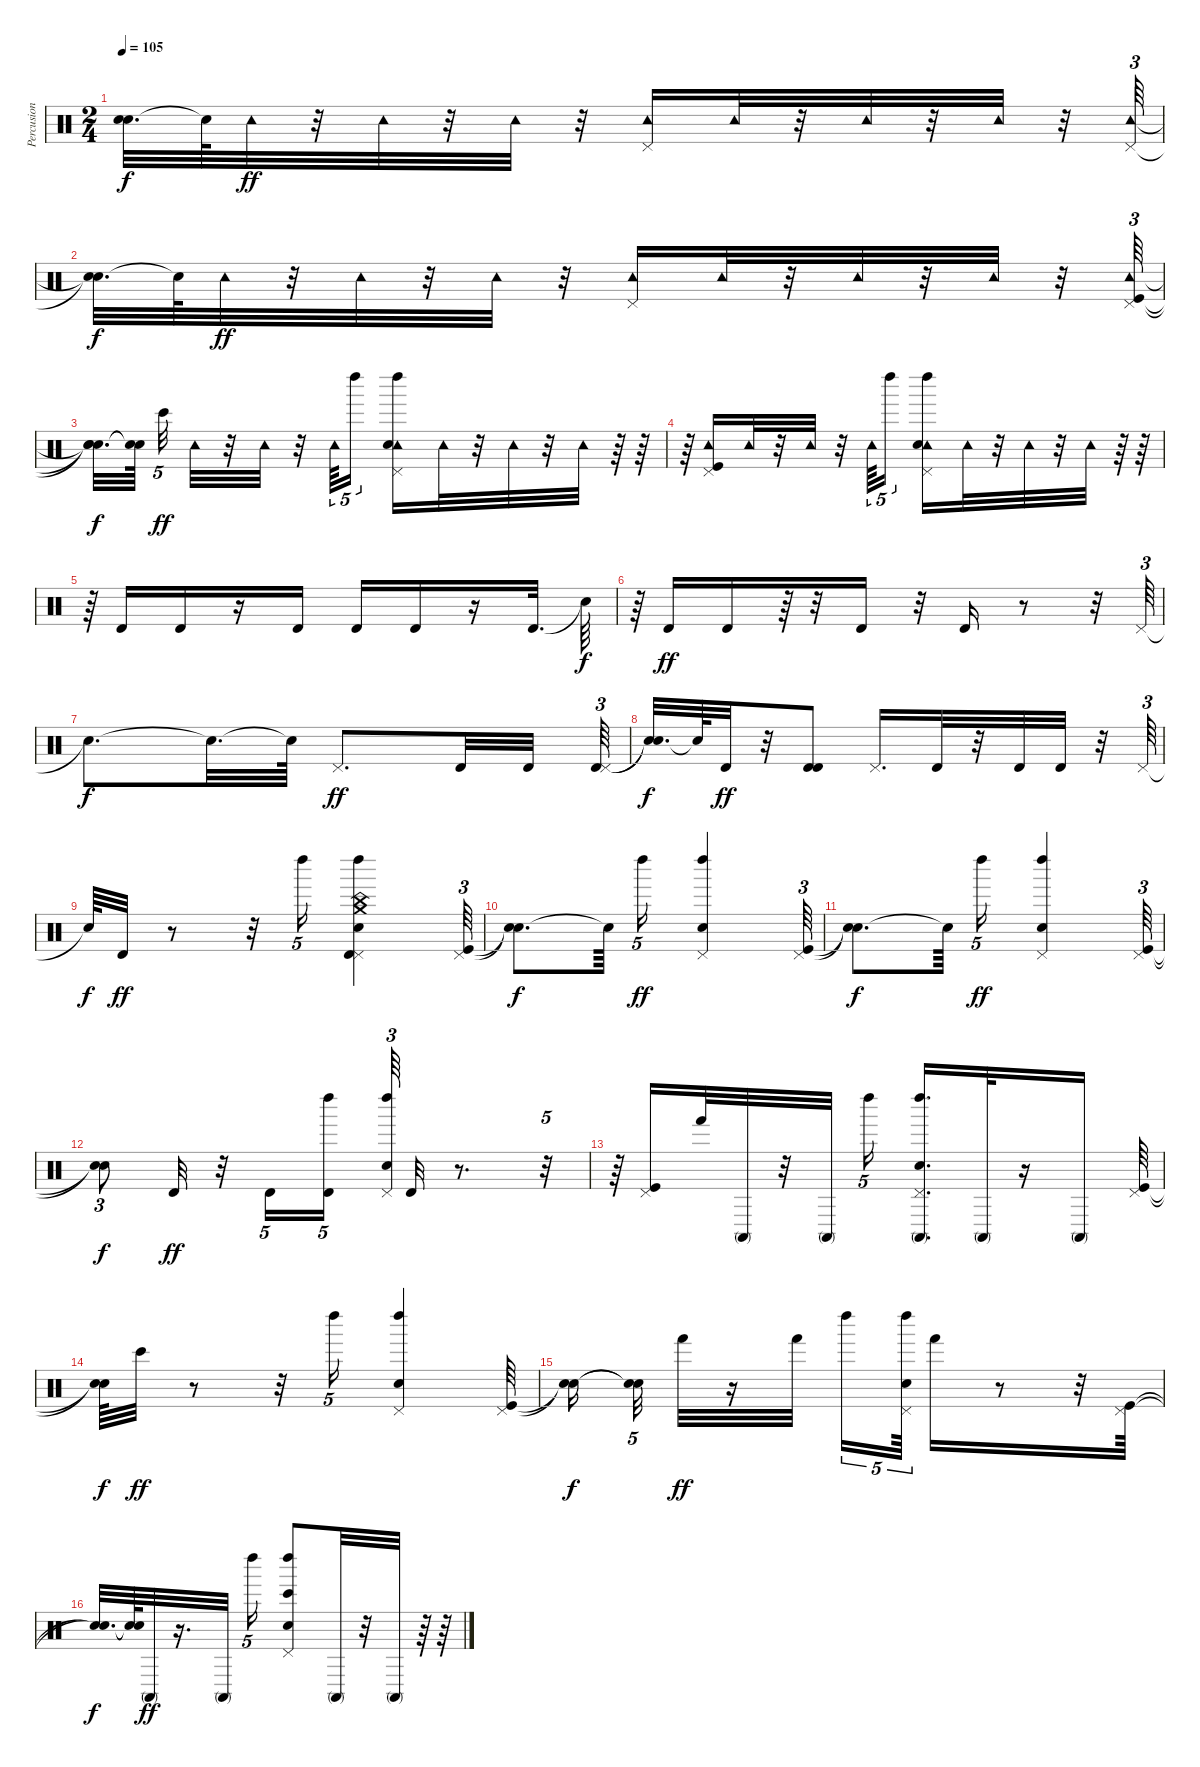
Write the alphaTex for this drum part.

\track ("Percusion" "Percusion") {instrument percussion}
\staff {score}
\articulation defaults
\ts (2 4)
\tempo 105
\clef neutral
\ks c
("Snare (hit)"{t} "Snare (hit)"{t}).32{d dy f} "Snare (hit)"{t}.64 "Tambourine (hit)".32{dy ff} r.32 "Tambourine (hit)".32 r.32 "Tambourine (hit)".32 r.32 ("Tambourine (hit)" "Pedal Hi-Hat (hit)").16 "Tambourine (hit)".32 r.32 "Tambourine (hit)".32 r.32 "Tambourine (hit)".32 r.32 ("Pedal Hi-Hat (hit)" "Tambourine (hit)").64{tu (3 2)} |
("Snare (hit)"{t} "Snare (hit)"{t}).32{d dy f} "Snare (hit)"{t}.64 "Tambourine (hit)".32{dy ff} r.32 "Tambourine (hit)".32 r.32 "Tambourine (hit)".32 r.32 ("Tambourine (hit)" "Pedal Hi-Hat (hit)").16 "Tambourine (hit)".32 r.32 "Tambourine (hit)".32 r.32 "Tambourine (hit)".32 r.32 ("Kick (hit)" "Tambourine (hit)" "Pedal Hi-Hat (hit)").64{tu (3 2)} |
("Snare (hit)"{t} "Snare (hit)"{t} "Snare (hit)"{t}).32{d dy f} ("Snare (hit)"{t} "Snare (hit)"{t}).64{beam splitsecondary} "Bongo High (hit)".32{tu (5 4) dy ff} "Tambourine (hit)".32 r.32 "Tambourine (hit)".32 r.32 "Tambourine (hit)".64{tu (5 4)} "Left Maraca (hit)".16{tu (5 4)} ("Pedal Hi-Hat (hit)" "Tambourine (hit)" "Electric Snare (hit)" "Left Maraca (hit)").16 "Tambourine (hit)".32 r.32 "Tambourine (hit)".32 r.32 "Tambourine (hit)".32 r.64 r.64 |
r.64 ("Pedal Hi-Hat (hit)" "Kick (hit)" "Tambourine (hit)").16 "Tambourine (hit)".32 r.32 "Tambourine (hit)".32 r.32 "Tambourine (hit)".64{tu (5 4)} "Left Maraca (hit)".16{tu (5 4)} ("Tambourine (hit)" "Electric Snare (hit)" "Pedal Hi-Hat (hit)" "Left Maraca (hit)").16 "Tambourine (hit)".32 r.32 "Tambourine (hit)".32 r.32 "Tambourine (hit)".32 r.64 r.64 |
r.64 "Timbale high (hit)".16 "Timbale high (hit)".16 r.16 "Timbale high (hit)".16 "Timbale high (hit)".16 "Timbale high (hit)".16 r.16 "Timbale high (hit)".32{d} "Snare (hit)"{t}.64{dy f} |
r.64 "Timbale high (hit)".16{dy ff} "Timbale high (hit)".16 r.64 r.32 "Timbale high (hit)".16 r.32 "Timbale high (hit)".16 r.8 r.32 "Pedal Hi-Hat (hit)".64{tu (3 2)} |
"Snare (hit)"{t}.8{d dy f} "Snare (hit)"{t}.32{d} "Snare (hit)"{t}.64 "Pedal Hi-Hat (hit)".8{d dy ff} "Timbale high (hit)".32 "Timbale high (hit)".32 ("Timbale high (hit)" "Pedal Hi-Hat (hit)").64{tu (3 2)} |
("Snare (hit)"{t} "Snare (hit)"{t}).32{d dy f} "Snare (hit)"{t}.64 "Timbale high (hit)".32{dy ff} r.32 ("Timbale high (hit)" "Timbale high (hit)").8 "Pedal Hi-Hat (hit)".16{d} "Timbale high (hit)".32 r.32 "Timbale high (hit)".32 "Timbale high (hit)".32 r.32 "Pedal Hi-Hat (hit)".64{tu (3 2)} |
"Snare (hit)"{t}.64{dy f} "Timbale high (hit)".32{dy ff} r.8 r.32 "Left Maraca (hit)".16{tu (5 4)} ("Pedal Hi-Hat (hit)" "Electric Snare (hit)" "Timbale high (hit)" "Crash medium (hit)" "China (hit)" "Left Maraca (hit)").4 ("Kick (hit)" "Pedal Hi-Hat (hit)").64{tu (3 2)} |
("Snare (hit)"{t} "Snare (hit)"{t}).8{d dy f} "Snare (hit)"{t}.64{beam splitsecondary} "Left Maraca (hit)".16{tu (5 4) dy ff} ("Electric Snare (hit)" "Pedal Hi-Hat (hit)" "Left Maraca (hit)").4 ("Pedal Hi-Hat (hit)" "Kick (hit)").64{tu (3 2)} |
("Snare (hit)"{t} "Snare (hit)"{t}).8{d dy f} "Snare (hit)"{t}.64{beam splitsecondary} "Left Maraca (hit)".16{tu (5 4) dy ff} ("Pedal Hi-Hat (hit)" "Electric Snare (hit)" "Left Maraca (hit)").4 ("Kick (hit)" "Pedal Hi-Hat (hit)").64{tu (3 2)} |
("Snare (hit)"{t} "Snare (hit)"{t}).8{tu (3 2) dy f} "Timbale high (hit)".32{dy ff} r.32 "Timbale high (hit)".16{tu (5 4)} ("Timbale high (hit)" "Left Maraca (hit)").16{tu (5 4)} ("Pedal Hi-Hat (hit)" "Electric Snare (hit)" "Left Maraca (hit)").64{tu (3 2)} "Timbale high (hit)".32 r.8{d} r.32{tu (5 4)} |
r.64 ("Pedal Hi-Hat (hit)" "Kick (hit)").16 "Hand (hit)".32 "Conga high (mute)".32 r.32 "Conga high (mute)".32 "Left Maraca (hit)".16{tu (5 4)} ("Electric Snare (hit)" "Pedal Hi-Hat (hit)" "Conga high (mute)" "Left Maraca (hit)").16{d} "Conga high (mute)".32 r.16 "Conga high (mute)".16 ("Kick (hit)" "Pedal Hi-Hat (hit)").64 |
("Snare (hit)"{t} "Snare (hit)"{t}).64{dy f} "Bongo High (hit)".32{dy ff} r.8 r.32 "Left Maraca (hit)".16{tu (5 4)} ("Pedal Hi-Hat (hit)" "Electric Snare (hit)" "Left Maraca (hit)").4 ("Pedal Hi-Hat (hit)" "Kick (hit)").64 |
("Snare (hit)"{t} "Snare (hit)"{t}).16{dy f beam splitsecondary} ("Snare (hit)"{t} "Snare (hit)"{t}).32{tu (5 4)} "Hand (hit)".32{dy ff} r.16 "Hand (hit)".32 "Left Maraca (hit)".16{tu (5 4)} ("Electric Snare (hit)" "Pedal Hi-Hat (hit)" "Left Maraca (hit)").64{tu (5 4)} "Hand (hit)".16 r.8 r.32 ("Kick (hit)" "Pedal Hi-Hat (hit)").64 |
("Snare (hit)"{t} "Snare (hit)"{t}).32{d dy f} ("Snare (hit)"{t} "Snare (hit)"{t}).64 "Conga high (mute)".32{dy ff} r.16{d} "Conga high (mute)".32 "Left Maraca (hit)".16{tu (5 4)} ("Pedal Hi-Hat (hit)" "Electric Snare (hit)" "Left Maraca (hit)" "Bongo High (hit)").8 "Conga high (mute)".32 r.32 "Conga high (mute)".32 r.64 r.64
